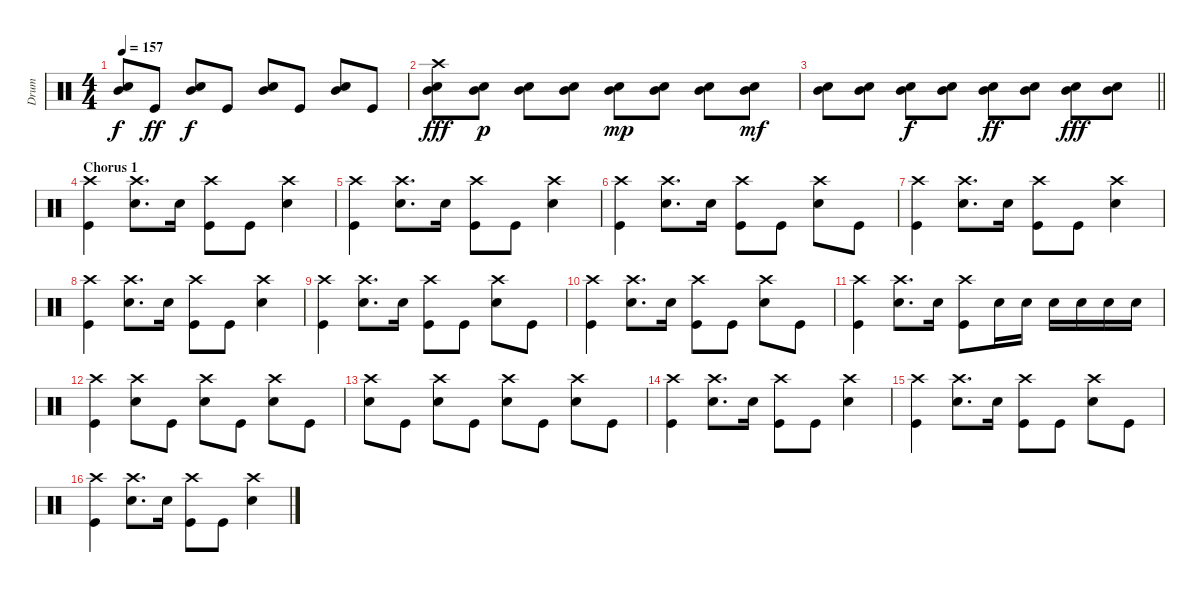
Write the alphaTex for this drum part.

\track ("Drum" "Drum") {instrument percussion}
\staff {score}
\articulation defaults
\ts (4 4)
\tempo 157
\clef neutral
\ks c
("Mid Tom (hit)" "Snare (hit) 2").8{dy f} "Kick (hit)".8{dy ff} ("Mid Tom (hit)" "Snare (hit) 2").8{dy f} "Kick (hit)".8 ("Mid Tom (hit)" "Snare (hit) 2").8 "Kick (hit)".8 ("Mid Tom (hit)" "Snare (hit) 2").8 "Kick (hit)".8 |
("Crash high (hit)" "Mid Tom (hit)" "Snare (hit) 2").8{dy fff} ("Mid Tom (hit)" "Snare (hit) 2").8{dy p} ("Mid Tom (hit)" "Snare (hit) 2").8 ("Mid Tom (hit)" "Snare (hit) 2").8 ("Mid Tom (hit)" "Snare (hit) 2").8{dy mp} ("Mid Tom (hit)" "Snare (hit) 2").8 ("Mid Tom (hit)" "Snare (hit) 2").8 ("Mid Tom (hit)" "Snare (hit) 2").8{dy mf} |
\barLineRight lightlight
("Mid Tom (hit)" "Snare (hit) 2").8 ("Mid Tom (hit)" "Snare (hit) 2").8 ("Mid Tom (hit)" "Snare (hit) 2").8{dy f} ("Mid Tom (hit)" "Snare (hit) 2").8 ("Mid Tom (hit)" "Snare (hit) 2").8{dy ff} ("Mid Tom (hit)" "Snare (hit) 2").8 ("Mid Tom (hit)" "Snare (hit) 2").8{dy fff} ("Mid Tom (hit)" "Snare (hit) 2").8 |
\section ("" "Chorus 1")
("Crash high (hit)" "Kick (hit)").4 ("Crash high (hit)" "Snare (hit) 2").8{d} "Snare (hit) 2".16 ("Crash high (hit)" "Kick (hit)").8 "Kick (hit)".8 ("Crash high (hit)" "Snare (hit) 2").4 |
("Crash high (hit)" "Kick (hit)").4 ("Crash high (hit)" "Snare (hit) 2").8{d} "Snare (hit) 2".16 ("Crash high (hit)" "Kick (hit)").8 "Kick (hit)".8 ("Crash high (hit)" "Snare (hit) 2").4 |
("Crash high (hit)" "Kick (hit)").4 ("Crash high (hit)" "Snare (hit) 2").8{d} "Snare (hit) 2".16 ("Crash high (hit)" "Kick (hit)").8 "Kick (hit)".8 ("Crash high (hit)" "Snare (hit) 2").8 "Kick (hit)".8 |
("Crash high (hit)" "Kick (hit)").4 ("Crash high (hit)" "Snare (hit) 2").8{d} "Snare (hit) 2".16 ("Crash high (hit)" "Kick (hit)").8 "Kick (hit)".8 ("Crash high (hit)" "Snare (hit) 2").4 |
("Crash high (hit)" "Kick (hit)").4 ("Crash high (hit)" "Snare (hit) 2").8{d} "Snare (hit) 2".16 ("Crash high (hit)" "Kick (hit)").8 "Kick (hit)".8 ("Crash high (hit)" "Snare (hit) 2").4 |
("Crash high (hit)" "Kick (hit)").4 ("Crash high (hit)" "Snare (hit) 2").8{d} "Snare (hit) 2".16 ("Crash high (hit)" "Kick (hit)").8 "Kick (hit)".8 ("Crash high (hit)" "Snare (hit) 2").8 "Kick (hit)".8 |
("Crash high (hit)" "Kick (hit)").4 ("Crash high (hit)" "Snare (hit) 2").8{d} "Snare (hit) 2".16 ("Crash high (hit)" "Kick (hit)").8 "Kick (hit)".8 ("Crash high (hit)" "Snare (hit) 2").8 "Kick (hit)".8 |
("Crash high (hit)" "Kick (hit)").4 ("Crash high (hit)" "Snare (hit) 2").8{d} "Snare (hit) 2".16 ("Crash high (hit)" "Kick (hit)").8 "Snare (hit) 2".16 "Snare (hit) 2".16 "Snare (hit) 2".16 "Snare (hit) 2".16 "Snare (hit) 2".16 "Snare (hit) 2".16 |
("Crash high (hit)" "Kick (hit)").4 ("Crash high (hit)" "Snare (hit) 2").8 "Kick (hit)".8 ("Crash high (hit)" "Snare (hit) 2").8 "Kick (hit)".8 ("Crash high (hit)" "Snare (hit) 2").8 "Kick (hit)".8 |
("Crash high (hit)" "Snare (hit) 2").8 "Kick (hit)".8 ("Crash high (hit)" "Snare (hit) 2").8 "Kick (hit)".8 ("Crash high (hit)" "Snare (hit) 2").8 "Kick (hit)".8 ("Crash high (hit)" "Snare (hit) 2").8 "Kick (hit)".8 |
("Crash high (hit)" "Kick (hit)").4 ("Crash high (hit)" "Snare (hit) 2").8{d} "Snare (hit) 2".16 ("Crash high (hit)" "Kick (hit)").8 "Kick (hit)".8 ("Crash high (hit)" "Snare (hit) 2").4 |
("Crash high (hit)" "Kick (hit)").4 ("Crash high (hit)" "Snare (hit) 2").8{d} "Snare (hit) 2".16 ("Crash high (hit)" "Kick (hit)").8 "Kick (hit)".8 ("Crash high (hit)" "Snare (hit) 2").8 "Kick (hit)".8 |
("Crash high (hit)" "Kick (hit)").4 ("Crash high (hit)" "Snare (hit) 2").8{d} "Snare (hit) 2".16 ("Crash high (hit)" "Kick (hit)").8 "Kick (hit)".8 ("Crash high (hit)" "Snare (hit) 2").4
